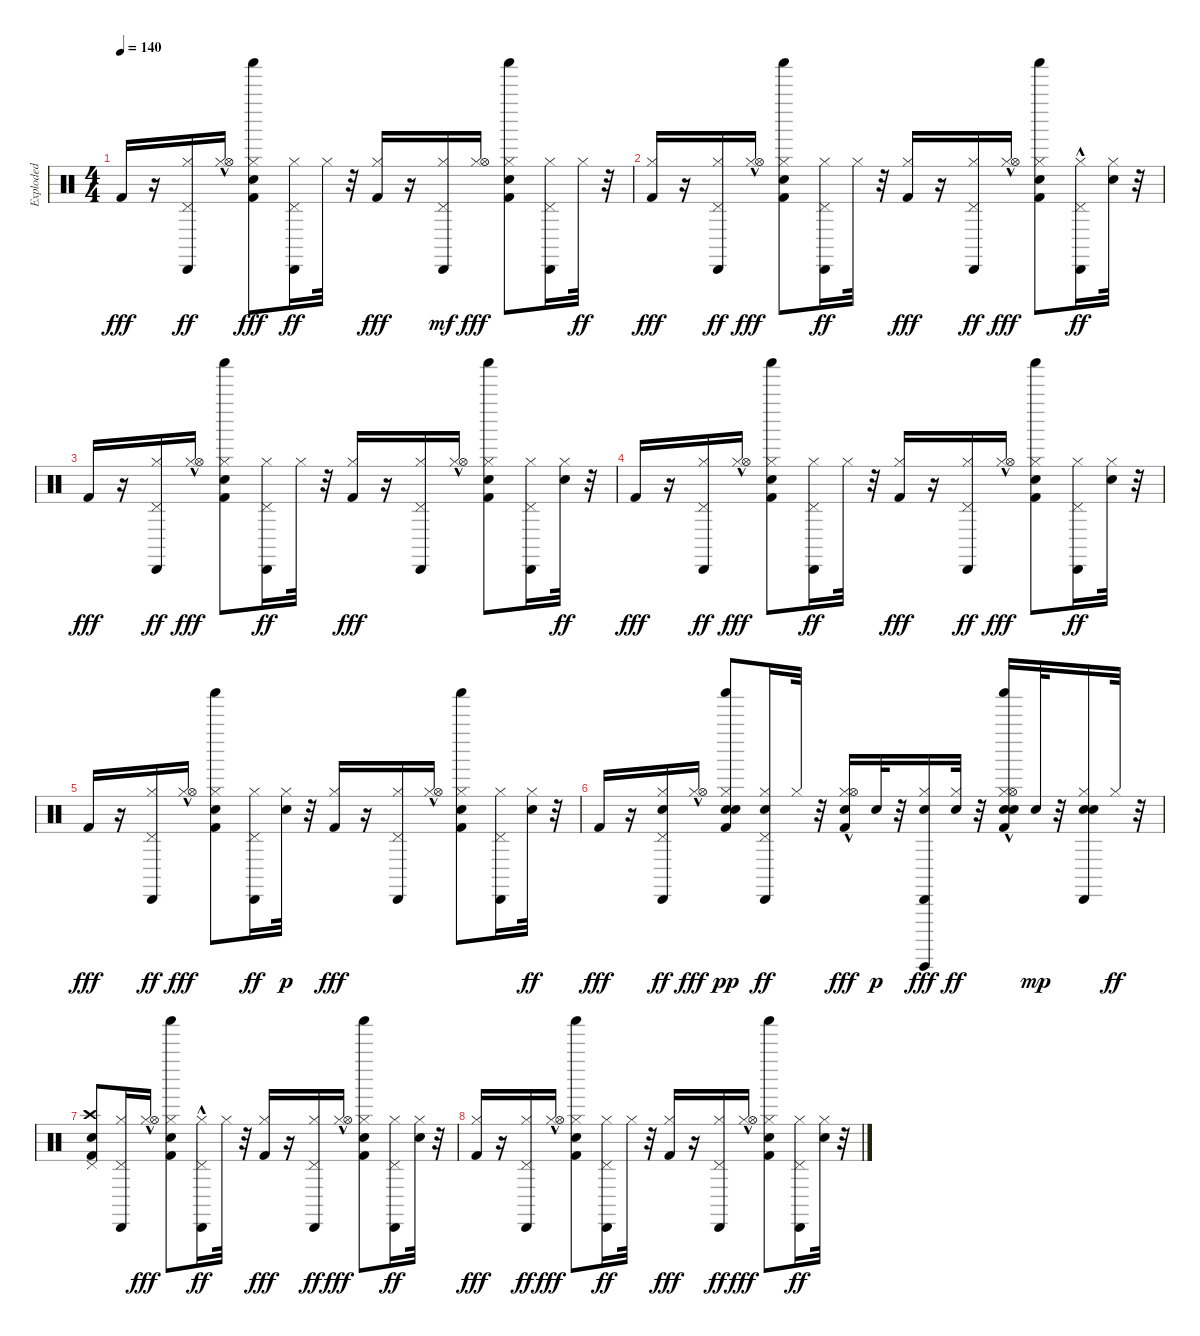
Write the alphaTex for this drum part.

\track ("Exploded" "Exploded") {instrument percussion}
\staff {score}
\articulation defaults
\ts (4 4)
\tempo 140
\clef neutral
\ks c "Kick (hit) 2".16{dy fff}
r.16 ("Cabasa (hit)" "Hi-Hat (closed)" "Pedal Hi-Hat (hit)").16{dy ff} ("Hi-Hat (closed)" "Hi-Hat (open)"{hac}).16 ("Hand Clap (hit)" "Shaker (hit)" "Hi-Hat (closed)" "Kick (hit) 2").8{dy fff} ("Cabasa (hit)" "Hi-Hat (closed)" "Pedal Hi-Hat (hit)").16{dy ff} "Hi-Hat (closed)".32 r.32 ("Hi-Hat (closed)" "Kick (hit) 2").16{dy fff} r.16 ("Cabasa (hit)" "Hi-Hat (closed)" "Pedal Hi-Hat (hit)").16{dy mf} ("Hi-Hat (closed)" "Hi-Hat (open)").16{dy fff} ("Hand Clap (hit)" "Shaker (hit)" "Hi-Hat (closed)" "Kick (hit) 2").8 ("Cabasa (hit)" "Hi-Hat (closed)" "Pedal Hi-Hat (hit)").16 "Hi-Hat (closed)".32{dy ff} r.32 |
("Hi-Hat (closed)" "Kick (hit) 2").16{dy fff} r.16 ("Cabasa (hit)" "Hi-Hat (closed)" "Pedal Hi-Hat (hit)").16{dy ff} ("Hi-Hat (closed)" "Hi-Hat (open)"{hac}).16{dy fff} ("Hand Clap (hit)" "Shaker (hit)" "Hi-Hat (closed)" "Kick (hit) 2").8 ("Cabasa (hit)" "Hi-Hat (closed)" "Pedal Hi-Hat (hit)").16{dy ff} "Hi-Hat (closed)".32 r.32 ("Hi-Hat (closed)" "Kick (hit) 2").16{dy fff} r.16 ("Cabasa (hit)" "Hi-Hat (closed)" "Pedal Hi-Hat (hit)").16{dy ff} ("Hi-Hat (closed)" "Hi-Hat (open)"{hac}).16{dy fff} ("Hand Clap (hit)" "Shaker (hit)" "Hi-Hat (closed)" "Kick (hit) 2").8 ("Cabasa (hit)"{hac} "Hi-Hat (closed)" "Pedal Hi-Hat (hit)").16{dy ff} ("Snare (hit) 2" "Hi-Hat (closed)").32 r.32 |
"Kick (hit) 2".16{dy fff} r.16 ("Cabasa (hit)" "Hi-Hat (closed)" "Pedal Hi-Hat (hit)").16{dy ff} ("Hi-Hat (closed)" "Hi-Hat (open)"{hac}).16{dy fff} ("Hand Clap (hit)" "Shaker (hit)" "Hi-Hat (closed)" "Kick (hit) 2").8 ("Cabasa (hit)" "Hi-Hat (closed)" "Pedal Hi-Hat (hit)").16{dy ff} "Hi-Hat (closed)".32 r.32 ("Hi-Hat (closed)" "Kick (hit) 2").16{dy fff} r.16 ("Cabasa (hit)" "Hi-Hat (closed)" "Pedal Hi-Hat (hit)").16 ("Hi-Hat (closed)" "Hi-Hat (open)"{hac}).16 ("Hand Clap (hit)" "Shaker (hit)" "Hi-Hat (closed)" "Kick (hit) 2").8 ("Cabasa (hit)" "Hi-Hat (closed)" "Pedal Hi-Hat (hit)").16 ("Snare (hit) 2" "Hi-Hat (closed)").32{dy ff} r.32 |
"Kick (hit) 2".16{dy fff} r.16 ("Cabasa (hit)" "Hi-Hat (closed)" "Pedal Hi-Hat (hit)").16{dy ff} ("Hi-Hat (closed)" "Hi-Hat (open)"{hac}).16{dy fff} ("Hand Clap (hit)" "Shaker (hit)" "Hi-Hat (closed)" "Kick (hit) 2").8 ("Cabasa (hit)" "Hi-Hat (closed)" "Pedal Hi-Hat (hit)").16{dy ff} "Hi-Hat (closed)".32 r.32 ("Hi-Hat (closed)" "Kick (hit) 2").16{dy fff} r.16 ("Cabasa (hit)" "Hi-Hat (closed)" "Pedal Hi-Hat (hit)").16{dy ff} ("Hi-Hat (closed)" "Hi-Hat (open)"{hac}).16{dy fff} ("Hand Clap (hit)" "Shaker (hit)" "Hi-Hat (closed)" "Kick (hit) 2").8 ("Cabasa (hit)" "Hi-Hat (closed)" "Pedal Hi-Hat (hit)").16{dy ff} ("Snare (hit) 2" "Hi-Hat (closed)").32 r.32 |
"Kick (hit) 2".16{dy fff} r.16 ("Cabasa (hit)" "Hi-Hat (closed)" "Pedal Hi-Hat (hit)").16{dy ff} ("Hi-Hat (closed)" "Hi-Hat (open)"{hac}).16{dy fff} ("Hand Clap (hit)" "Shaker (hit)" "Hi-Hat (closed)" "Kick (hit) 2").8 ("Cabasa (hit)" "Hi-Hat (closed)" "Pedal Hi-Hat (hit)").16{dy ff} ("Hi-Hat (closed)" "Snare (hit) 2").32{dy p} r.32 ("Hi-Hat (closed)" "Kick (hit) 2").16{dy fff} r.16 ("Cabasa (hit)" "Hi-Hat (closed)" "Pedal Hi-Hat (hit)").16 ("Hi-Hat (closed)" "Hi-Hat (open)"{hac}).16 ("Hand Clap (hit)" "Shaker (hit)" "Hi-Hat (closed)" "Kick (hit) 2").8 ("Cabasa (hit)" "Hi-Hat (closed)" "Pedal Hi-Hat (hit)").16 ("Snare (hit) 2" "Hi-Hat (closed)").32{dy ff} r.32 |
"Kick (hit) 2".16{dy fff} r.16 ("Cabasa (hit)" "Hi-Hat (closed)" "Snare (hit) 2" "Pedal Hi-Hat (hit)").16{dy ff} ("Hi-Hat (closed)" "Hi-Hat (open)"{hac}).16{dy fff} ("Hand Clap (hit)" "Shaker (hit)" "Hi-Hat (closed)" "Kick (hit) 2" "Snare (hit) 2").8{dy pp} ("Cabasa (hit)" "Hi-Hat (closed)" "Snare (hit) 2" "Pedal Hi-Hat (hit)").16{dy ff} "Hi-Hat (closed)".32 r.32 ("Hi-Hat (closed)" "Kick (hit) 2" "Snare (hit) 2" "Hi-Hat (open)"{hac}).16{dy fff} "Snare (hit) 2".32{dy p} r.32 ("Guiro (hit)" "Snare (hit) 2" "Cabasa (hit)" "Hi-Hat (closed)").16{dy fff} ("Snare (hit) 2" "Hi-Hat (closed)").32{dy ff} r.32 ("Snare (hit) 2" "Hand Clap (hit)" "Shaker (hit)" "Hi-Hat (closed)" "Kick (hit) 2" "Hi-Hat (open)"{hac}).16 "Snare (hit) 2".32{dy mp} r.32 ("Snare (hit) 2" "Cabasa (hit)" "Hi-Hat (closed)" "Snare (hit) 2").16 "Hi-Hat (closed)".32{dy ff} r.32 |
("Snare (hit) 2" "Crash high (hit)" "Kick (hit) 2" "Pedal Hi-Hat (hit)").8 ("Cabasa (hit)" "Hi-Hat (closed)" "Pedal Hi-Hat (hit)").16 ("Hi-Hat (closed)" "Hi-Hat (open)"{hac}).16{dy fff} ("Hand Clap (hit)" "Shaker (hit)" "Hi-Hat (closed)" "Kick (hit) 2").8 ("Cabasa (hit)"{hac} "Hi-Hat (closed)" "Pedal Hi-Hat (hit)").16{dy ff} "Hi-Hat (closed)".32 r.32 ("Hi-Hat (closed)" "Kick (hit) 2").16{dy fff} r.16 ("Cabasa (hit)" "Hi-Hat (closed)" "Pedal Hi-Hat (hit)").16{dy ff} ("Hi-Hat (closed)" "Hi-Hat (open)"{hac}).16{dy fff} ("Hand Clap (hit)" "Shaker (hit)" "Hi-Hat (closed)" "Kick (hit) 2").8 ("Cabasa (hit)" "Hi-Hat (closed)" "Pedal Hi-Hat (hit)").16{dy ff} ("Snare (hit) 2" "Hi-Hat (closed)").32 r.32 |
("Hi-Hat (closed)" "Kick (hit) 2").16{dy fff} r.16 ("Cabasa (hit)" "Hi-Hat (closed)" "Pedal Hi-Hat (hit)").16{dy ff} ("Hi-Hat (closed)" "Hi-Hat (open)"{hac}).16{dy fff} ("Hand Clap (hit)" "Shaker (hit)" "Hi-Hat (closed)" "Kick (hit) 2").8 ("Cabasa (hit)" "Hi-Hat (closed)" "Pedal Hi-Hat (hit)").16{dy ff} "Hi-Hat (closed)".32 r.32 ("Hi-Hat (closed)" "Kick (hit) 2").16{dy fff} r.16 ("Cabasa (hit)" "Hi-Hat (closed)" "Pedal Hi-Hat (hit)").16{dy ff} ("Hi-Hat (closed)" "Hi-Hat (open)"{hac}).16{dy fff} ("Hand Clap (hit)" "Shaker (hit)" "Hi-Hat (closed)" "Kick (hit) 2").8 ("Cabasa (hit)" "Hi-Hat (closed)" "Pedal Hi-Hat (hit)").16{dy ff} ("Snare (hit) 2" "Hi-Hat (closed)").32 r.32
